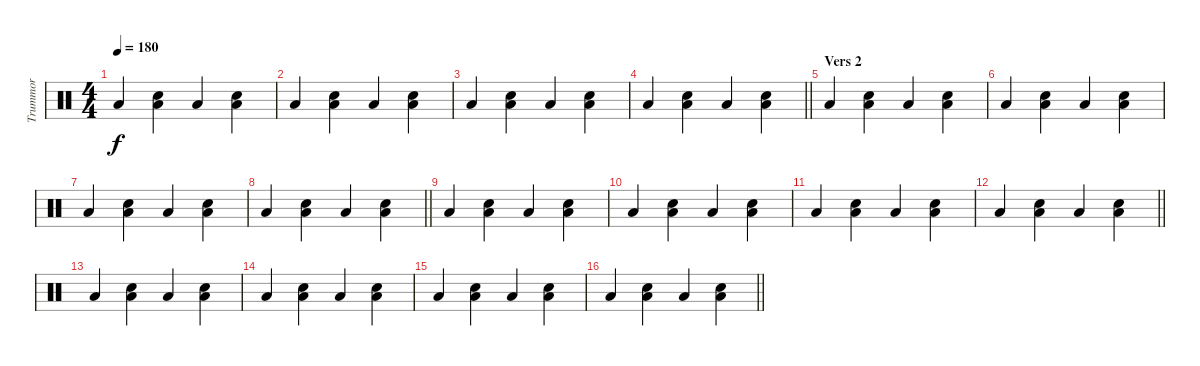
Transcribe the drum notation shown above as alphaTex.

\track ("Trummor" "Trummor") {instrument percussion}
\staff {score}
\articulation defaults
\ts (4 4)
\tempo 180
\clef neutral
\ks c "Low Tom (hit)".4{dy f}
("Low Tom (hit)" "Snare (hit) 2").4 "Low Tom (hit)".4 ("Low Tom (hit)" "Snare (hit) 2").4 |
"Low Tom (hit)".4 ("Low Tom (hit)" "Snare (hit) 2").4 "Low Tom (hit)".4 ("Low Tom (hit)" "Snare (hit) 2").4 |
"Low Tom (hit)".4 ("Low Tom (hit)" "Snare (hit) 2").4 "Low Tom (hit)".4 ("Low Tom (hit)" "Snare (hit) 2").4 |
\barLineRight lightlight "Low Tom (hit)".4
("Low Tom (hit)" "Snare (hit) 2").4 "Low Tom (hit)".4 ("Low Tom (hit)" "Snare (hit) 2").4 |
\section ("" "Vers 2")
"Low Tom (hit)".4 ("Low Tom (hit)" "Snare (hit) 2").4 "Low Tom (hit)".4 ("Low Tom (hit)" "Snare (hit) 2").4 |
"Low Tom (hit)".4 ("Low Tom (hit)" "Snare (hit) 2").4 "Low Tom (hit)".4 ("Low Tom (hit)" "Snare (hit) 2").4 |
"Low Tom (hit)".4 ("Low Tom (hit)" "Snare (hit) 2").4 "Low Tom (hit)".4 ("Low Tom (hit)" "Snare (hit) 2").4 |
\barLineRight lightlight "Low Tom (hit)".4
("Low Tom (hit)" "Snare (hit) 2").4 "Low Tom (hit)".4 ("Low Tom (hit)" "Snare (hit) 2").4 |
"Low Tom (hit)".4 ("Low Tom (hit)" "Snare (hit) 2").4 "Low Tom (hit)".4 ("Low Tom (hit)" "Snare (hit) 2").4 |
"Low Tom (hit)".4 ("Low Tom (hit)" "Snare (hit) 2").4 "Low Tom (hit)".4 ("Low Tom (hit)" "Snare (hit) 2").4 |
"Low Tom (hit)".4 ("Low Tom (hit)" "Snare (hit) 2").4 "Low Tom (hit)".4 ("Low Tom (hit)" "Snare (hit) 2").4 |
\barLineRight lightlight "Low Tom (hit)".4
("Low Tom (hit)" "Snare (hit) 2").4 "Low Tom (hit)".4 ("Low Tom (hit)" "Snare (hit) 2").4 |
"Low Tom (hit)".4 ("Low Tom (hit)" "Snare (hit) 2").4 "Low Tom (hit)".4 ("Low Tom (hit)" "Snare (hit) 2").4 |
"Low Tom (hit)".4 ("Low Tom (hit)" "Snare (hit) 2").4 "Low Tom (hit)".4 ("Low Tom (hit)" "Snare (hit) 2").4 |
"Low Tom (hit)".4 ("Low Tom (hit)" "Snare (hit) 2").4 "Low Tom (hit)".4 ("Low Tom (hit)" "Snare (hit) 2").4 |
\barLineRight lightlight "Low Tom (hit)".4
("Low Tom (hit)" "Snare (hit) 2").4 "Low Tom (hit)".4 ("Low Tom (hit)" "Snare (hit) 2").4
